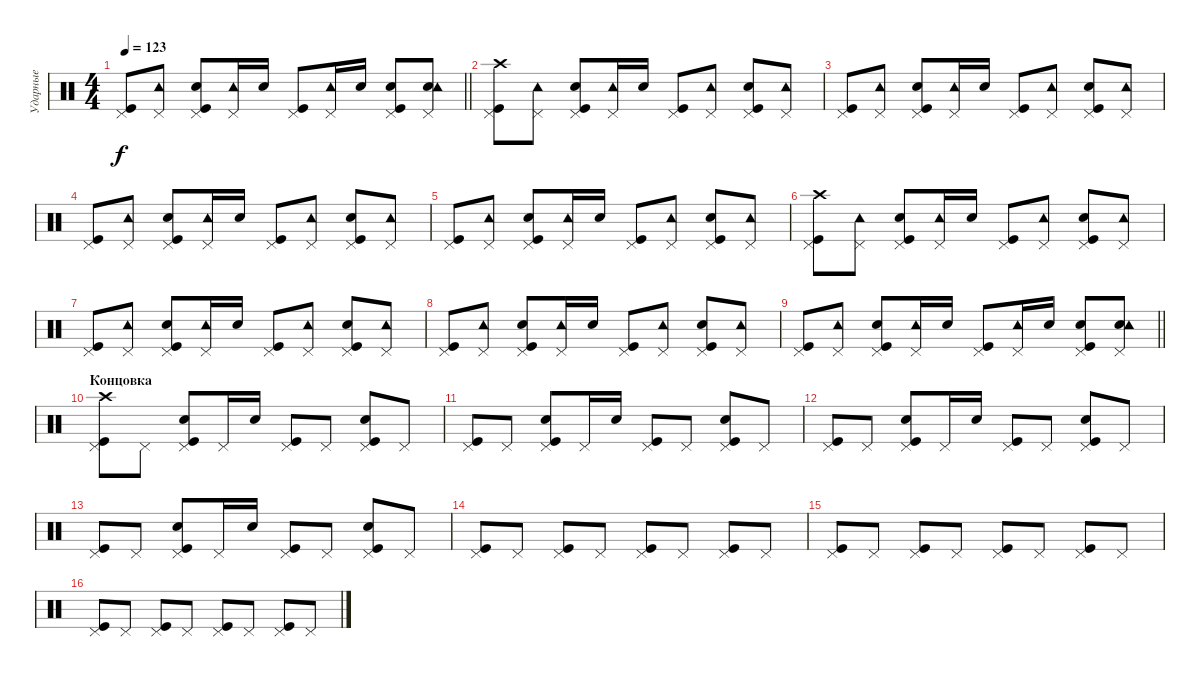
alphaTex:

\track ("Ударные" "Ударные") {instrument percussion}
\staff {score}
\articulation defaults
\ts (4 4)
\tempo 123
\clef neutral
\barLineRight lightlight
\ks c
("Kick (hit)" "Pedal Hi-Hat (hit)").8{dy f} ("Pedal Hi-Hat (hit)" "Tambourine (hit)").8 ("Kick (hit)" "Pedal Hi-Hat (hit)" "Snare (hit) 2").8 ("Pedal Hi-Hat (hit)" "Tambourine (hit)").16 "Snare (hit) 2".16 ("Kick (hit)" "Pedal Hi-Hat (hit)").8 ("Pedal Hi-Hat (hit)" "Tambourine (hit)").16 "Snare (hit) 2".16 ("Kick (hit)" "Pedal Hi-Hat (hit)" "Snare (hit) 2").8 ("Pedal Hi-Hat (hit)" "Snare (hit) 2" "Tambourine (hit)").8 |
("Kick (hit)" "Pedal Hi-Hat (hit)" "Crash high (hit)").8 ("Pedal Hi-Hat (hit)" "Tambourine (hit)").8 ("Kick (hit)" "Pedal Hi-Hat (hit)" "Snare (hit) 2").8 ("Pedal Hi-Hat (hit)" "Tambourine (hit)").16 "Snare (hit) 2".16 ("Kick (hit)" "Pedal Hi-Hat (hit)").8 ("Pedal Hi-Hat (hit)" "Tambourine (hit)").8 ("Kick (hit)" "Pedal Hi-Hat (hit)" "Snare (hit) 2").8 ("Pedal Hi-Hat (hit)" "Tambourine (hit)").8 |
("Kick (hit)" "Pedal Hi-Hat (hit)").8 ("Pedal Hi-Hat (hit)" "Tambourine (hit)").8 ("Kick (hit)" "Pedal Hi-Hat (hit)" "Snare (hit) 2").8 ("Pedal Hi-Hat (hit)" "Tambourine (hit)").16 "Snare (hit) 2".16 ("Kick (hit)" "Pedal Hi-Hat (hit)").8 ("Pedal Hi-Hat (hit)" "Tambourine (hit)").8 ("Kick (hit)" "Pedal Hi-Hat (hit)" "Snare (hit) 2").8 ("Pedal Hi-Hat (hit)" "Tambourine (hit)").8 |
("Kick (hit)" "Pedal Hi-Hat (hit)").8 ("Pedal Hi-Hat (hit)" "Tambourine (hit)").8 ("Kick (hit)" "Pedal Hi-Hat (hit)" "Snare (hit) 2").8 ("Pedal Hi-Hat (hit)" "Tambourine (hit)").16 "Snare (hit) 2".16 ("Kick (hit)" "Pedal Hi-Hat (hit)").8 ("Pedal Hi-Hat (hit)" "Tambourine (hit)").8 ("Kick (hit)" "Pedal Hi-Hat (hit)" "Snare (hit) 2").8 ("Pedal Hi-Hat (hit)" "Tambourine (hit)").8 |
("Kick (hit)" "Pedal Hi-Hat (hit)").8 ("Pedal Hi-Hat (hit)" "Tambourine (hit)").8 ("Kick (hit)" "Pedal Hi-Hat (hit)" "Snare (hit) 2").8 ("Pedal Hi-Hat (hit)" "Tambourine (hit)").16 "Snare (hit) 2".16 ("Kick (hit)" "Pedal Hi-Hat (hit)").8 ("Pedal Hi-Hat (hit)" "Tambourine (hit)").8 ("Kick (hit)" "Pedal Hi-Hat (hit)" "Snare (hit) 2").8 ("Pedal Hi-Hat (hit)" "Tambourine (hit)").8 |
("Kick (hit)" "Pedal Hi-Hat (hit)" "Crash high (hit)").8 ("Pedal Hi-Hat (hit)" "Tambourine (hit)").8 ("Kick (hit)" "Pedal Hi-Hat (hit)" "Snare (hit) 2").8 ("Pedal Hi-Hat (hit)" "Tambourine (hit)").16 "Snare (hit) 2".16 ("Kick (hit)" "Pedal Hi-Hat (hit)").8 ("Pedal Hi-Hat (hit)" "Tambourine (hit)").8 ("Kick (hit)" "Pedal Hi-Hat (hit)" "Snare (hit) 2").8 ("Pedal Hi-Hat (hit)" "Tambourine (hit)").8 |
("Kick (hit)" "Pedal Hi-Hat (hit)").8 ("Pedal Hi-Hat (hit)" "Tambourine (hit)").8 ("Kick (hit)" "Pedal Hi-Hat (hit)" "Snare (hit) 2").8 ("Pedal Hi-Hat (hit)" "Tambourine (hit)").16 "Snare (hit) 2".16 ("Kick (hit)" "Pedal Hi-Hat (hit)").8 ("Pedal Hi-Hat (hit)" "Tambourine (hit)").8 ("Kick (hit)" "Pedal Hi-Hat (hit)" "Snare (hit) 2").8 ("Pedal Hi-Hat (hit)" "Tambourine (hit)").8 |
("Kick (hit)" "Pedal Hi-Hat (hit)").8 ("Pedal Hi-Hat (hit)" "Tambourine (hit)").8 ("Kick (hit)" "Pedal Hi-Hat (hit)" "Snare (hit) 2").8 ("Pedal Hi-Hat (hit)" "Tambourine (hit)").16 "Snare (hit) 2".16 ("Kick (hit)" "Pedal Hi-Hat (hit)").8 ("Pedal Hi-Hat (hit)" "Tambourine (hit)").8 ("Kick (hit)" "Pedal Hi-Hat (hit)" "Snare (hit) 2").8 ("Pedal Hi-Hat (hit)" "Tambourine (hit)").8 |
\barLineRight lightlight
("Kick (hit)" "Pedal Hi-Hat (hit)").8 ("Pedal Hi-Hat (hit)" "Tambourine (hit)").8 ("Kick (hit)" "Pedal Hi-Hat (hit)" "Snare (hit) 2").8 ("Pedal Hi-Hat (hit)" "Tambourine (hit)").16 "Snare (hit) 2".16 ("Kick (hit)" "Pedal Hi-Hat (hit)").8 ("Pedal Hi-Hat (hit)" "Tambourine (hit)").16 "Snare (hit) 2".16 ("Kick (hit)" "Pedal Hi-Hat (hit)" "Snare (hit) 2").8 ("Pedal Hi-Hat (hit)" "Snare (hit) 2" "Tambourine (hit)").8 |
\section ("" "Концовка")
("Kick (hit)" "Pedal Hi-Hat (hit)" "Crash high (hit)").8 "Pedal Hi-Hat (hit)".8 ("Kick (hit)" "Pedal Hi-Hat (hit)" "Snare (hit) 2").8 "Pedal Hi-Hat (hit)".16 "Snare (hit) 2".16 ("Kick (hit)" "Pedal Hi-Hat (hit)").8 "Pedal Hi-Hat (hit)".8 ("Kick (hit)" "Pedal Hi-Hat (hit)" "Snare (hit) 2").8 "Pedal Hi-Hat (hit)".8 |
("Kick (hit)" "Pedal Hi-Hat (hit)").8 "Pedal Hi-Hat (hit)".8 ("Kick (hit)" "Pedal Hi-Hat (hit)" "Snare (hit) 2").8 "Pedal Hi-Hat (hit)".16 "Snare (hit) 2".16 ("Kick (hit)" "Pedal Hi-Hat (hit)").8 "Pedal Hi-Hat (hit)".8 ("Kick (hit)" "Pedal Hi-Hat (hit)" "Snare (hit) 2").8 "Pedal Hi-Hat (hit)".8 |
("Kick (hit)" "Pedal Hi-Hat (hit)").8 "Pedal Hi-Hat (hit)".8 ("Kick (hit)" "Pedal Hi-Hat (hit)" "Snare (hit) 2").8 "Pedal Hi-Hat (hit)".16 "Snare (hit) 2".16 ("Kick (hit)" "Pedal Hi-Hat (hit)").8 "Pedal Hi-Hat (hit)".8 ("Kick (hit)" "Pedal Hi-Hat (hit)" "Snare (hit) 2").8 "Pedal Hi-Hat (hit)".8 |
("Kick (hit)" "Pedal Hi-Hat (hit)").8 "Pedal Hi-Hat (hit)".8 ("Kick (hit)" "Pedal Hi-Hat (hit)" "Snare (hit) 2").8 "Pedal Hi-Hat (hit)".16 "Snare (hit) 2".16 ("Kick (hit)" "Pedal Hi-Hat (hit)").8 "Pedal Hi-Hat (hit)".8 ("Kick (hit)" "Pedal Hi-Hat (hit)" "Snare (hit) 2").8 "Pedal Hi-Hat (hit)".8 |
("Kick (hit)" "Pedal Hi-Hat (hit)").8 "Pedal Hi-Hat (hit)".8 ("Kick (hit)" "Pedal Hi-Hat (hit)").8 "Pedal Hi-Hat (hit)".8 ("Kick (hit)" "Pedal Hi-Hat (hit)").8 "Pedal Hi-Hat (hit)".8 ("Kick (hit)" "Pedal Hi-Hat (hit)").8 "Pedal Hi-Hat (hit)".8 |
("Kick (hit)" "Pedal Hi-Hat (hit)").8 "Pedal Hi-Hat (hit)".8 ("Kick (hit)" "Pedal Hi-Hat (hit)").8 "Pedal Hi-Hat (hit)".8 ("Kick (hit)" "Pedal Hi-Hat (hit)").8 "Pedal Hi-Hat (hit)".8 ("Kick (hit)" "Pedal Hi-Hat (hit)").8 "Pedal Hi-Hat (hit)".8 |
("Kick (hit)" "Pedal Hi-Hat (hit)").8 "Pedal Hi-Hat (hit)".8 ("Kick (hit)" "Pedal Hi-Hat (hit)").8 "Pedal Hi-Hat (hit)".8 ("Kick (hit)" "Pedal Hi-Hat (hit)").8 "Pedal Hi-Hat (hit)".8 ("Kick (hit)" "Pedal Hi-Hat (hit)").8 "Pedal Hi-Hat (hit)".8
